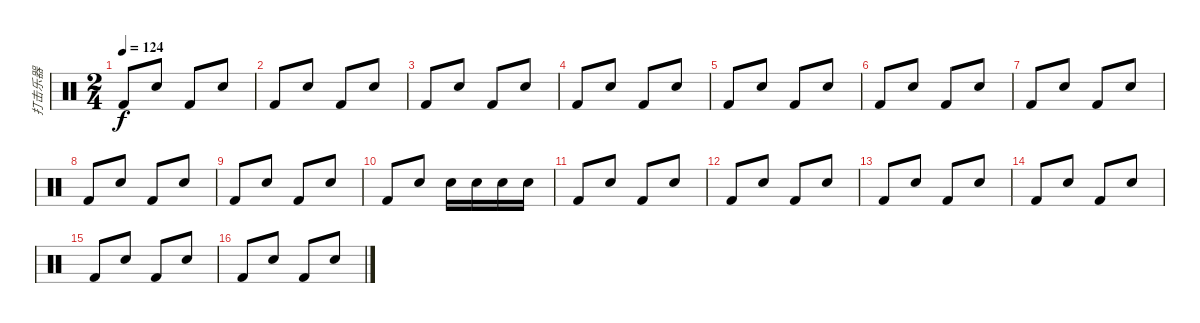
\track ("打击乐器" "打击乐器") {instrument percussion}
\staff {score}
\articulation defaults
\ts (2 4)
\tempo 124
\clef neutral
\ks c "Kick (hit) 2".8{dy f} "Snare (hit) 2".8 "Kick (hit) 2".8 "Snare (hit) 2".8
|
"Kick (hit) 2".8 "Snare (hit) 2".8 "Kick (hit) 2".8 "Snare (hit) 2".8 |
"Kick (hit) 2".8 "Snare (hit) 2".8 "Kick (hit) 2".8 "Snare (hit) 2".8 |
"Kick (hit) 2".8 "Snare (hit) 2".8 "Kick (hit) 2".8 "Snare (hit) 2".8 |
"Kick (hit) 2".8 "Snare (hit) 2".8 "Kick (hit) 2".8 "Snare (hit) 2".8 |
"Kick (hit) 2".8 "Snare (hit) 2".8 "Kick (hit) 2".8 "Snare (hit) 2".8 |
"Kick (hit) 2".8 "Snare (hit) 2".8 "Kick (hit) 2".8 "Snare (hit) 2".8 |
"Kick (hit) 2".8 "Snare (hit) 2".8 "Kick (hit) 2".8 "Snare (hit) 2".8 |
"Kick (hit) 2".8 "Snare (hit) 2".8 "Kick (hit) 2".8 "Snare (hit) 2".8 |
"Kick (hit) 2".8 "Snare (hit) 2".8 "Snare (hit) 2".16 "Snare (hit) 2".16 "Snare (hit) 2".16 "Snare (hit) 2".16 |
"Kick (hit) 2".8 "Snare (hit) 2".8 "Kick (hit) 2".8 "Snare (hit) 2".8 |
"Kick (hit) 2".8 "Snare (hit) 2".8 "Kick (hit) 2".8 "Snare (hit) 2".8 |
"Kick (hit) 2".8 "Snare (hit) 2".8 "Kick (hit) 2".8 "Snare (hit) 2".8 |
"Kick (hit) 2".8 "Snare (hit) 2".8 "Kick (hit) 2".8 "Snare (hit) 2".8 |
"Kick (hit) 2".8 "Snare (hit) 2".8 "Kick (hit) 2".8 "Snare (hit) 2".8 |
"Kick (hit) 2".8 "Snare (hit) 2".8 "Kick (hit) 2".8 "Snare (hit) 2".8
